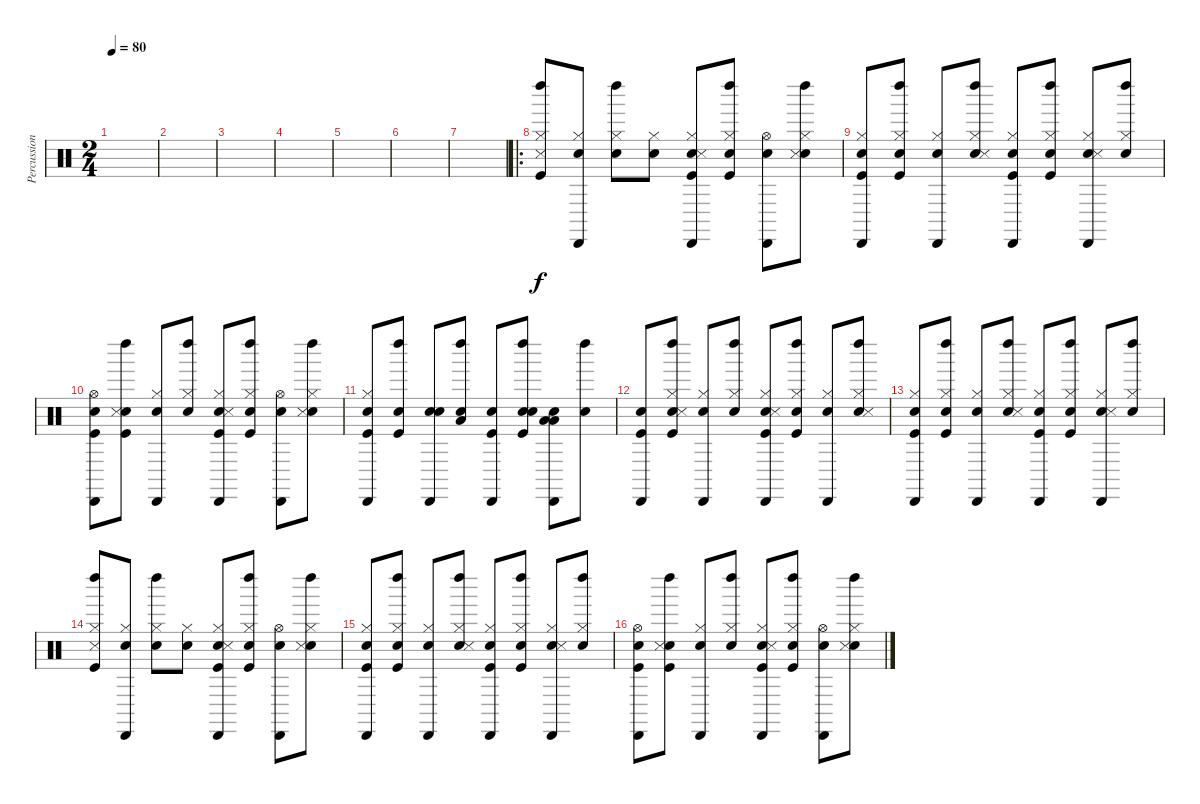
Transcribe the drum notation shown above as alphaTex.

\track ("Percussions" "Percussion") {instrument percussion}
\staff {score}
\articulation defaults
\ts (2 4)
\tempo 80
\clef neutral
\ks c
|
|
|
|
|
|
|
\ro
("Kick (hit)" "Hi-Hat (closed)" "Snare (side stick) 3" "Left Maraca (hit)").8 ("Snare (hit)" "Hi-Hat (closed)" "Cabasa (hit)").8 ("Snare (hit)" "Hi-Hat (closed)" "Left Maraca (hit)").8 ("Snare (hit)" "Hi-Hat (closed)").8 ("Snare (hit)" "Kick (hit)" "Hi-Hat (closed)" "Snare (side stick) 3" "Cabasa (hit)").8 ("Snare (hit)" "Kick (hit)" "Hi-Hat (closed)" "Left Maraca (hit)").8 ("Snare (hit)" "Hi-Hat (open)" "Cabasa (hit)").8 ("Snare (hit)" "Hi-Hat (closed)" "Snare (side stick) 3" "Left Maraca (hit)").8 |
("Snare (hit)" "Kick (hit)" "Hi-Hat (closed)" "Cabasa (hit)").8 ("Snare (hit)" "Kick (hit)" "Hi-Hat (closed)" "Left Maraca (hit)").8 ("Snare (hit)" "Hi-Hat (closed)" "Cabasa (hit)").8 ("Snare (hit)" "Hi-Hat (closed)" "Snare (side stick) 3" "Left Maraca (hit)").8 ("Snare (hit)" "Kick (hit)" "Hi-Hat (closed)" "Cabasa (hit)").8 ("Snare (hit)" "Kick (hit)" "Hi-Hat (closed)" "Left Maraca (hit)").8 ("Snare (hit)" "Hi-Hat (closed)" "Snare (side stick) 3" "Cabasa (hit)").8 ("Snare (hit)" "Hi-Hat (closed)" "Left Maraca (hit)").8 |
("Snare (hit)" "Kick (hit)" "Hi-Hat (open)" "Cabasa (hit)").8 ("Snare (hit)" "Kick (hit)" "Snare (side stick) 3" "Left Maraca (hit)").8 ("Snare (hit)" "Hi-Hat (closed)" "Cabasa (hit)").8 ("Snare (hit)" "Hi-Hat (closed)" "Left Maraca (hit)").8 ("Snare (hit)" "Kick (hit)" "Hi-Hat (closed)" "Snare (side stick) 3" "Cabasa (hit)").8 ("Snare (hit)" "Kick (hit)" "Hi-Hat (closed)" "Left Maraca (hit)").8 ("Snare (hit)" "Hi-Hat (open)" "Cabasa (hit)").8 ("Snare (hit)" "Hi-Hat (closed)" "Snare (side stick) 3" "Left Maraca (hit)").8 |
("Snare (hit)" "Kick (hit)" "Hi-Hat (closed)" "Cabasa (hit)").8 ("Snare (hit)" "Kick (hit)" "Left Maraca (hit)").8 ("Snare (hit)" "Snare (hit) 2" "Cabasa (hit)").8 ("Snare (hit)" "Low Tom (hit)" "Left Maraca (hit)").8 ("Snare (hit)" "Kick (hit)" "Cabasa (hit)").8 ("Snare (hit)" "Kick (hit)" "Snare (hit) 2" "Left Maraca (hit)").8 ("Snare (hit)" "Low Floor Tom (hit)" "Low Tom (hit)" "Cabasa (hit)").8 ("Snare (hit)" "Left Maraca (hit)").8 |
("Snare (hit)" "Kick (hit)" "Cabasa (hit)").8 ("Snare (hit)" "Kick (hit)" "Hi-Hat (closed)" "Snare (side stick) 3" "Left Maraca (hit)").8 ("Snare (hit)" "Hi-Hat (closed)" "Cabasa (hit)").8 ("Snare (hit)" "Hi-Hat (closed)" "Left Maraca (hit)").8 ("Snare (hit)" "Kick (hit)" "Hi-Hat (closed)" "Snare (side stick) 3" "Cabasa (hit)").8 ("Snare (hit)" "Kick (hit)" "Hi-Hat (closed)" "Left Maraca (hit)").8 ("Snare (hit)" "Hi-Hat (closed)" "Cabasa (hit)").8 ("Snare (hit)" "Hi-Hat (closed)" "Snare (side stick) 3" "Left Maraca (hit)").8 |
("Snare (hit)" "Kick (hit)" "Hi-Hat (closed)" "Cabasa (hit)").8 ("Snare (hit)" "Kick (hit)" "Hi-Hat (closed)" "Left Maraca (hit)").8 ("Snare (hit)" "Hi-Hat (closed)" "Cabasa (hit)").8 ("Snare (hit)" "Hi-Hat (closed)" "Snare (side stick) 3" "Left Maraca (hit)").8 ("Snare (hit)" "Kick (hit)" "Hi-Hat (closed)" "Cabasa (hit)").8 ("Snare (hit)" "Kick (hit)" "Hi-Hat (closed)" "Left Maraca (hit)").8 ("Snare (hit)" "Hi-Hat (closed)" "Snare (side stick) 3" "Cabasa (hit)").8 ("Snare (hit)" "Hi-Hat (closed)" "Left Maraca (hit)").8 |
("Kick (hit)" "Hi-Hat (closed)" "Snare (side stick) 3" "Left Maraca (hit)").8 ("Snare (hit)" "Hi-Hat (closed)" "Cabasa (hit)").8 ("Snare (hit)" "Hi-Hat (closed)" "Left Maraca (hit)").8 ("Snare (hit)" "Hi-Hat (closed)").8 ("Snare (hit)" "Kick (hit)" "Hi-Hat (closed)" "Snare (side stick) 3" "Cabasa (hit)").8 ("Snare (hit)" "Kick (hit)" "Hi-Hat (closed)" "Left Maraca (hit)").8 ("Snare (hit)" "Hi-Hat (open)" "Cabasa (hit)").8 ("Snare (hit)" "Hi-Hat (closed)" "Snare (side stick) 3" "Left Maraca (hit)").8 |
("Snare (hit)" "Kick (hit)" "Hi-Hat (closed)" "Cabasa (hit)").8 ("Snare (hit)" "Kick (hit)" "Hi-Hat (closed)" "Left Maraca (hit)").8 ("Snare (hit)" "Hi-Hat (closed)" "Cabasa (hit)").8 ("Snare (hit)" "Hi-Hat (closed)" "Snare (side stick) 3" "Left Maraca (hit)").8 ("Snare (hit)" "Kick (hit)" "Hi-Hat (closed)" "Cabasa (hit)").8 ("Snare (hit)" "Kick (hit)" "Hi-Hat (closed)" "Left Maraca (hit)").8 ("Snare (hit)" "Hi-Hat (closed)" "Snare (side stick) 3" "Cabasa (hit)").8 ("Snare (hit)" "Hi-Hat (closed)" "Left Maraca (hit)").8 |
("Snare (hit)" "Kick (hit)" "Hi-Hat (open)" "Cabasa (hit)").8 ("Snare (hit)" "Kick (hit)" "Snare (side stick) 3" "Left Maraca (hit)").8 ("Snare (hit)" "Hi-Hat (closed)" "Cabasa (hit)").8 ("Snare (hit)" "Hi-Hat (closed)" "Left Maraca (hit)").8 ("Snare (hit)" "Kick (hit)" "Hi-Hat (closed)" "Snare (side stick) 3" "Cabasa (hit)").8 ("Snare (hit)" "Kick (hit)" "Hi-Hat (closed)" "Left Maraca (hit)").8 ("Snare (hit)" "Hi-Hat (open)" "Cabasa (hit)").8 ("Snare (hit)" "Hi-Hat (closed)" "Snare (side stick) 3" "Left Maraca (hit)").8
